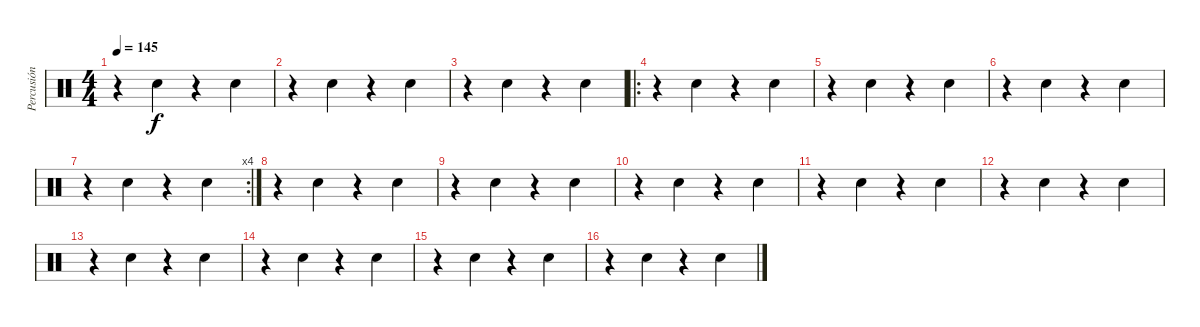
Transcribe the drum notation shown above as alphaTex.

\track ("Percusión" "Percusión") {instrument percussion}
\staff {score}
\articulation defaults
\ts (4 4)
\tempo 145
\clef neutral
\ks c
r.4{dy f} "Snare (hit) 2".4 r.4 "Snare (hit) 2".4 |
r.4 "Snare (hit) 2".4 r.4 "Snare (hit) 2".4 |
r.4 "Snare (hit) 2".4 r.4 "Snare (hit) 2".4 |
\ro
r.4 "Snare (hit) 2".4 r.4 "Snare (hit) 2".4 |
r.4 "Snare (hit) 2".4 r.4 "Snare (hit) 2".4 |
r.4 "Snare (hit) 2".4 r.4 "Snare (hit) 2".4 |
\rc 4
r.4 "Snare (hit) 2".4 r.4 "Snare (hit) 2".4 |
r.4 "Snare (hit) 2".4 r.4 "Snare (hit) 2".4 |
r.4 "Snare (hit) 2".4 r.4 "Snare (hit) 2".4 |
r.4 "Snare (hit) 2".4 r.4 "Snare (hit) 2".4 |
r.4 "Snare (hit) 2".4 r.4 "Snare (hit) 2".4 |
r.4 "Snare (hit) 2".4 r.4 "Snare (hit) 2".4 |
r.4 "Snare (hit) 2".4 r.4 "Snare (hit) 2".4 |
r.4 "Snare (hit) 2".4 r.4 "Snare (hit) 2".4 |
r.4 "Snare (hit) 2".4 r.4 "Snare (hit) 2".4 |
r.4 "Snare (hit) 2".4 r.4 "Snare (hit) 2".4
